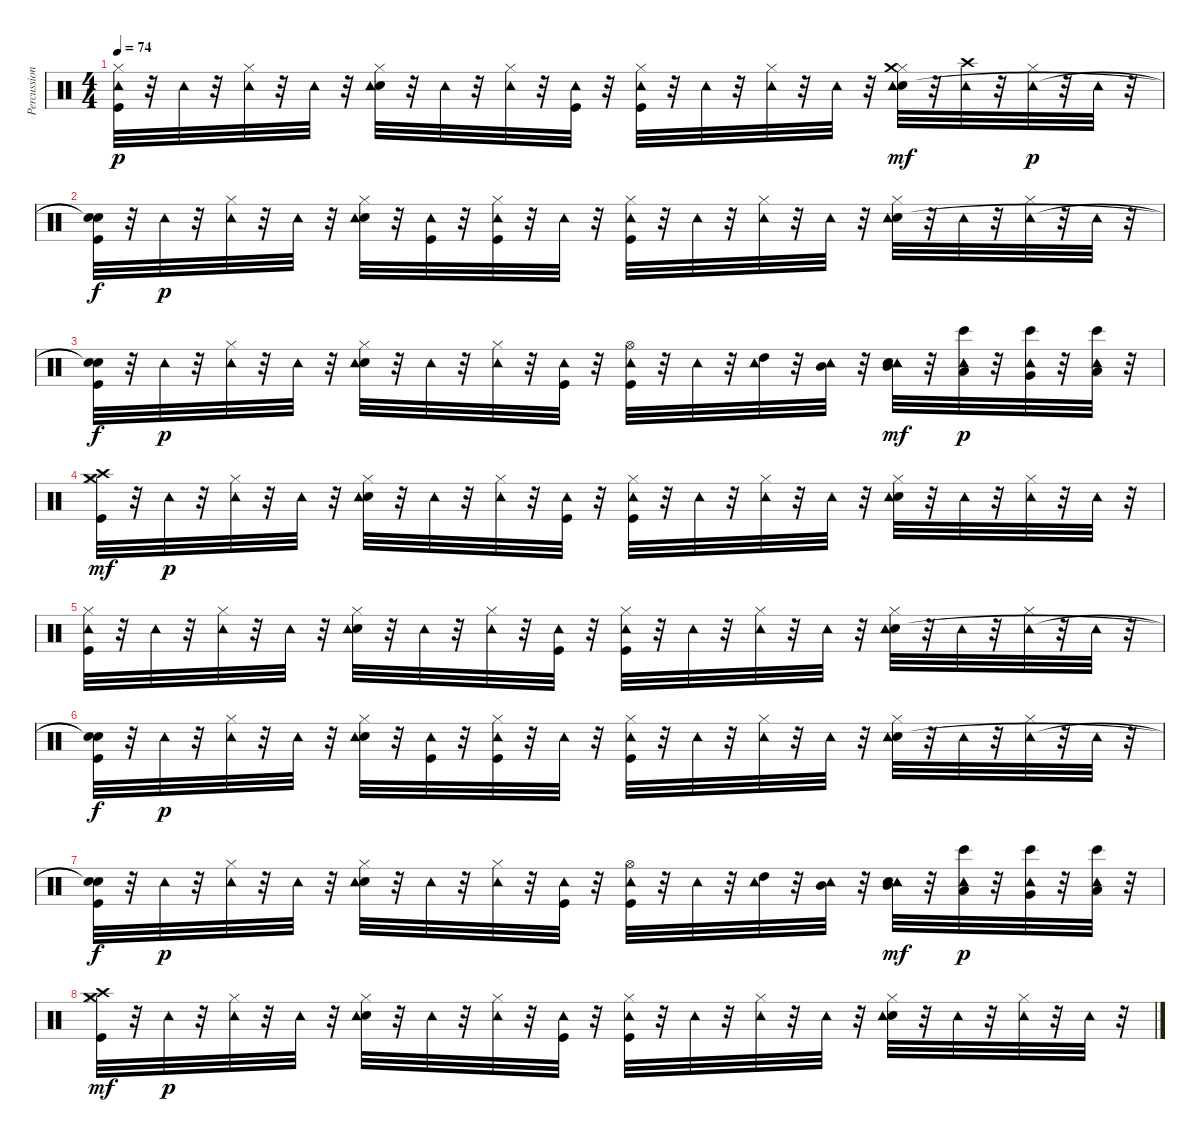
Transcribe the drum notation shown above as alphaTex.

\track ("Percussion" "Percussion") {instrument percussion}
\staff {score}
\articulation defaults
\ts (4 4)
\tempo 74
\clef neutral
\ks c
("Kick (hit)" "Hi-Hat (closed)" "Tambourine (hit)").32{dy p} r.32 "Tambourine (hit)".32 r.32 ("Hi-Hat (closed)" "Tambourine (hit)").32 r.32 "Tambourine (hit)".32 r.32 ("Snare (hit) 2" "Hi-Hat (closed)" "Tambourine (hit)").32 r.32 "Tambourine (hit)".32 r.32 ("Hi-Hat (closed)" "Tambourine (hit)").32 r.32 ("Kick (hit)" "Tambourine (hit)").32 r.32 ("Kick (hit)" "Hi-Hat (closed)" "Tambourine (hit)").32 r.32 "Tambourine (hit)".32 r.32 ("Hi-Hat (closed)" "Tambourine (hit)").32 r.32 "Tambourine (hit)".32 r.32 ("Snare (hit) 2" "Hi-Hat (closed)" "Tambourine (hit)" "Crash medium (hit)").32{dy mf} r.32 ("Tambourine (hit)" "Crash high (hit)").32 r.32 ("Hi-Hat (closed)" "Tambourine (hit)").32{dy p} r.32 "Tambourine (hit)".32 r.32 |
("Kick (hit)" "Snare (hit)"{t} "Snare (hit)"{t}).32{dy f} r.32 "Tambourine (hit)".32{dy p} r.32 ("Hi-Hat (closed)" "Tambourine (hit)").32 r.32 "Tambourine (hit)".32 r.32 ("Snare (hit) 2" "Hi-Hat (closed)" "Tambourine (hit)").32 r.32 ("Kick (hit)" "Tambourine (hit)").32 r.32 ("Kick (hit)" "Hi-Hat (closed)" "Tambourine (hit)").32 r.32 "Tambourine (hit)".32 r.32 ("Kick (hit)" "Hi-Hat (closed)" "Tambourine (hit)").32 r.32 "Tambourine (hit)".32 r.32 ("Hi-Hat (closed)" "Tambourine (hit)").32 r.32 "Tambourine (hit)".32 r.32 ("Snare (hit) 2" "Hi-Hat (closed)" "Tambourine (hit)").32 r.32 "Tambourine (hit)".32 r.32 ("Hi-Hat (closed)" "Tambourine (hit)").32 r.32 "Tambourine (hit)".32 r.32 |
("Kick (hit)" "Snare (hit)"{t} "Snare (hit)"{t}).32{dy f} r.32 "Tambourine (hit)".32{dy p} r.32 ("Hi-Hat (closed)" "Tambourine (hit)").32 r.32 "Tambourine (hit)".32 r.32 ("Snare (hit) 2" "Hi-Hat (closed)" "Tambourine (hit)").32 r.32 "Tambourine (hit)".32 r.32 ("Hi-Hat (closed)" "Tambourine (hit)").32 r.32 ("Kick (hit)" "Tambourine (hit)").32 r.32 ("Kick (hit)" "Hi-Hat (open)" "Tambourine (hit)").32 r.32 "Tambourine (hit)".32 r.32 ("High Tom (hit)" "Tambourine (hit)").32 r.32 ("Mid Tom (hit)" "Tambourine (hit)").32 r.32 ("Mid Tom (hit)" "Tambourine (hit)" "Snare (hit) 2").32{dy mf} r.32 ("Low Tom (hit)" "Tambourine (hit)" "Bongo High (hit)").32{dy p} r.32 ("Very Low Tom (hit)" "Tambourine (hit)" "Bongo High (hit)").32 r.32 ("Low Floor Tom (hit)" "Tambourine (hit)" "Bongo High (hit)").32 r.32 |
("Kick (hit)" "Hi-Hat (closed)" "Crash high (hit)" "Crash medium (hit)").32{dy mf} r.32 "Tambourine (hit)".32{dy p} r.32 ("Hi-Hat (closed)" "Tambourine (hit)").32 r.32 "Tambourine (hit)".32 r.32 ("Snare (hit) 2" "Hi-Hat (closed)" "Tambourine (hit)").32 r.32 "Tambourine (hit)".32 r.32 ("Hi-Hat (closed)" "Tambourine (hit)").32 r.32 ("Kick (hit)" "Tambourine (hit)").32 r.32 ("Kick (hit)" "Hi-Hat (closed)" "Tambourine (hit)").32 r.32 "Tambourine (hit)".32 r.32 ("Hi-Hat (closed)" "Tambourine (hit)").32 r.32 "Tambourine (hit)".32 r.32 ("Snare (hit) 2" "Hi-Hat (closed)" "Tambourine (hit)").32 r.32 "Tambourine (hit)".32 r.32 ("Hi-Hat (closed)" "Tambourine (hit)").32 r.32 "Tambourine (hit)".32 r.32 |
("Kick (hit)" "Hi-Hat (closed)" "Tambourine (hit)").32 r.32 "Tambourine (hit)".32 r.32 ("Hi-Hat (closed)" "Tambourine (hit)").32 r.32 "Tambourine (hit)".32 r.32 ("Snare (hit) 2" "Hi-Hat (closed)" "Tambourine (hit)").32 r.32 "Tambourine (hit)".32 r.32 ("Hi-Hat (closed)" "Tambourine (hit)").32 r.32 ("Kick (hit)" "Tambourine (hit)").32 r.32 ("Kick (hit)" "Hi-Hat (closed)" "Tambourine (hit)").32 r.32 "Tambourine (hit)".32 r.32 ("Hi-Hat (closed)" "Tambourine (hit)").32 r.32 "Tambourine (hit)".32 r.32 ("Snare (hit) 2" "Hi-Hat (closed)" "Tambourine (hit)").32 r.32 "Tambourine (hit)".32 r.32 ("Hi-Hat (closed)" "Tambourine (hit)").32 r.32 "Tambourine (hit)".32 r.32 |
("Kick (hit)" "Snare (hit)"{t} "Snare (hit)"{t}).32{dy f} r.32 "Tambourine (hit)".32{dy p} r.32 ("Hi-Hat (closed)" "Tambourine (hit)").32 r.32 "Tambourine (hit)".32 r.32 ("Snare (hit) 2" "Hi-Hat (closed)" "Tambourine (hit)").32 r.32 ("Kick (hit)" "Tambourine (hit)").32 r.32 ("Kick (hit)" "Hi-Hat (closed)" "Tambourine (hit)").32 r.32 "Tambourine (hit)".32 r.32 ("Kick (hit)" "Hi-Hat (closed)" "Tambourine (hit)").32 r.32 "Tambourine (hit)".32 r.32 ("Hi-Hat (closed)" "Tambourine (hit)").32 r.32 "Tambourine (hit)".32 r.32 ("Snare (hit) 2" "Hi-Hat (closed)" "Tambourine (hit)").32 r.32 "Tambourine (hit)".32 r.32 ("Hi-Hat (closed)" "Tambourine (hit)").32 r.32 "Tambourine (hit)".32 r.32 |
("Kick (hit)" "Snare (hit)"{t} "Snare (hit)"{t}).32{dy f} r.32 "Tambourine (hit)".32{dy p} r.32 ("Hi-Hat (closed)" "Tambourine (hit)").32 r.32 "Tambourine (hit)".32 r.32 ("Snare (hit) 2" "Hi-Hat (closed)" "Tambourine (hit)").32 r.32 "Tambourine (hit)".32 r.32 ("Hi-Hat (closed)" "Tambourine (hit)").32 r.32 ("Kick (hit)" "Tambourine (hit)").32 r.32 ("Kick (hit)" "Hi-Hat (open)" "Tambourine (hit)").32 r.32 "Tambourine (hit)".32 r.32 ("High Tom (hit)" "Tambourine (hit)").32 r.32 ("Mid Tom (hit)" "Tambourine (hit)").32 r.32 ("Mid Tom (hit)" "Tambourine (hit)" "Snare (hit) 2").32{dy mf} r.32 ("Low Tom (hit)" "Tambourine (hit)" "Bongo High (hit)").32{dy p} r.32 ("Very Low Tom (hit)" "Tambourine (hit)" "Bongo High (hit)").32 r.32 ("Low Floor Tom (hit)" "Tambourine (hit)" "Bongo High (hit)").32 r.32 |
("Kick (hit)" "Hi-Hat (closed)" "Crash high (hit)" "Crash medium (hit)").32{dy mf} r.32 "Tambourine (hit)".32{dy p} r.32 ("Hi-Hat (closed)" "Tambourine (hit)").32 r.32 "Tambourine (hit)".32 r.32 ("Snare (hit) 2" "Hi-Hat (closed)" "Tambourine (hit)").32 r.32 "Tambourine (hit)".32 r.32 ("Hi-Hat (closed)" "Tambourine (hit)").32 r.32 ("Kick (hit)" "Tambourine (hit)").32 r.32 ("Kick (hit)" "Hi-Hat (closed)" "Tambourine (hit)").32 r.32 "Tambourine (hit)".32 r.32 ("Hi-Hat (closed)" "Tambourine (hit)").32 r.32 "Tambourine (hit)".32 r.32 ("Snare (hit) 2" "Hi-Hat (closed)" "Tambourine (hit)").32 r.32 "Tambourine (hit)".32 r.32 ("Hi-Hat (closed)" "Tambourine (hit)").32 r.32 "Tambourine (hit)".32 r.32
